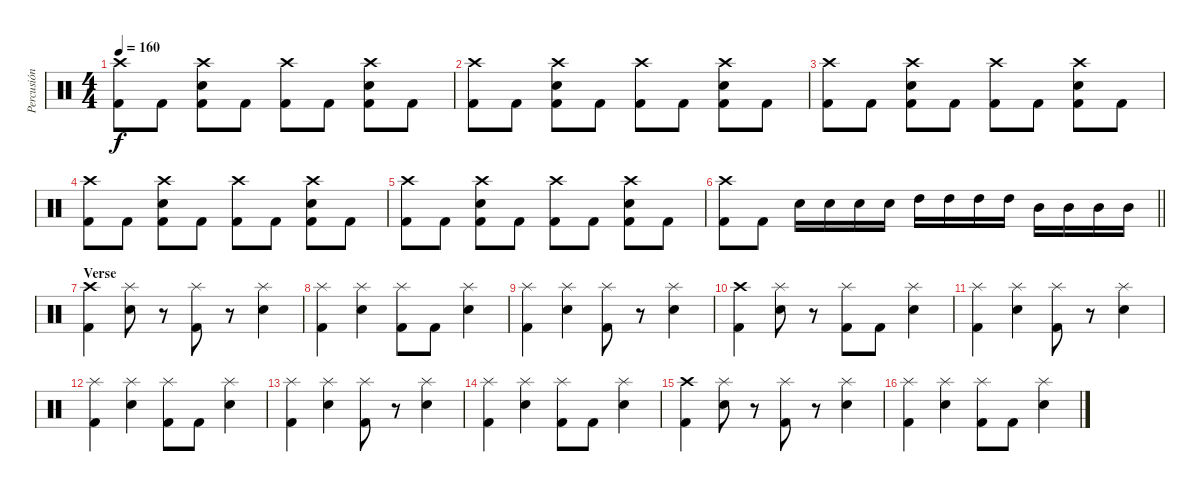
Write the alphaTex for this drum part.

\track ("Percusión" "Percusión") {instrument percussion}
\staff {score}
\articulation defaults
\ts (4 4)
\tempo 160
\clef neutral
\ks c
("Crash high (hit)" "Kick (hit) 2").8{dy f} "Kick (hit) 2".8 ("Crash high (hit)" "Electric Snare (hit)" "Kick (hit) 2").8 "Kick (hit) 2".8 ("Crash high (hit)" "Kick (hit) 2").8 "Kick (hit) 2".8 ("Crash high (hit)" "Electric Snare (hit)" "Kick (hit) 2").8 "Kick (hit) 2".8 |
("Crash high (hit)" "Kick (hit) 2").8 "Kick (hit) 2".8 ("Crash high (hit)" "Electric Snare (hit)" "Kick (hit) 2").8 "Kick (hit) 2".8 ("Crash high (hit)" "Kick (hit) 2").8 "Kick (hit) 2".8 ("Crash high (hit)" "Electric Snare (hit)" "Kick (hit) 2").8 "Kick (hit) 2".8 |
("Crash high (hit)" "Kick (hit) 2").8 "Kick (hit) 2".8 ("Crash high (hit)" "Electric Snare (hit)" "Kick (hit) 2").8 "Kick (hit) 2".8 ("Crash high (hit)" "Kick (hit) 2").8 "Kick (hit) 2".8 ("Crash high (hit)" "Electric Snare (hit)" "Kick (hit) 2").8 "Kick (hit) 2".8 |
("Crash high (hit)" "Kick (hit) 2").8 "Kick (hit) 2".8 ("Crash high (hit)" "Electric Snare (hit)" "Kick (hit) 2").8 "Kick (hit) 2".8 ("Crash high (hit)" "Kick (hit) 2").8 "Kick (hit) 2".8 ("Crash high (hit)" "Electric Snare (hit)" "Kick (hit) 2").8 "Kick (hit) 2".8 |
("Crash high (hit)" "Kick (hit) 2").8 "Kick (hit) 2".8 ("Crash high (hit)" "Electric Snare (hit)" "Kick (hit) 2").8 "Kick (hit) 2".8 ("Crash high (hit)" "Kick (hit) 2").8 "Kick (hit) 2".8 ("Crash high (hit)" "Electric Snare (hit)" "Kick (hit) 2").8 "Kick (hit) 2".8 |
\barLineRight lightlight
("Crash high (hit)" "Kick (hit) 2").8 "Kick (hit) 2".8 "Electric Snare (hit)".16 "Electric Snare (hit)".16 "Electric Snare (hit)".16 "Electric Snare (hit)".16 "High Tom (hit)".16 "High Tom (hit)".16 "High Tom (hit)".16 "High Tom (hit)".16 "Mid Tom (hit)".16 "Mid Tom (hit)".16 "Mid Tom (hit)".16 "Mid Tom (hit)".16 |
\section ("" "Verse")
("Crash high (hit)" "Kick (hit) 2").4 ("Splash (hit)" "Electric Snare (hit)").8 r.8 ("Splash (hit)" "Kick (hit) 2").8 r.8 ("Splash (hit)" "Electric Snare (hit)").4 |
("Splash (hit)" "Kick (hit) 2").4 ("Splash (hit)" "Electric Snare (hit)").4 ("Splash (hit)" "Kick (hit) 2").8 "Kick (hit) 2".8 ("Splash (hit)" "Electric Snare (hit)").4 |
("Splash (hit)" "Kick (hit) 2").4 ("Splash (hit)" "Electric Snare (hit)").4 ("Splash (hit)" "Kick (hit) 2").8 r.8 ("Splash (hit)" "Electric Snare (hit)").4 |
("Crash high (hit)" "Kick (hit) 2").4 ("Splash (hit)" "Electric Snare (hit)").8 r.8 ("Splash (hit)" "Kick (hit) 2").8 "Kick (hit) 2".8 ("Splash (hit)" "Electric Snare (hit)").4 |
("Splash (hit)" "Kick (hit) 2").4 ("Splash (hit)" "Electric Snare (hit)").4 ("Splash (hit)" "Kick (hit) 2").8 r.8 ("Splash (hit)" "Electric Snare (hit)").4 |
("Splash (hit)" "Kick (hit) 2").4 ("Splash (hit)" "Electric Snare (hit)").4 ("Splash (hit)" "Kick (hit) 2").8 "Kick (hit) 2".8 ("Splash (hit)" "Electric Snare (hit)").4 |
("Splash (hit)" "Kick (hit) 2").4 ("Splash (hit)" "Electric Snare (hit)").4 ("Splash (hit)" "Kick (hit) 2").8 r.8 ("Splash (hit)" "Electric Snare (hit)").4 |
("Splash (hit)" "Kick (hit) 2").4 ("Splash (hit)" "Electric Snare (hit)").4 ("Splash (hit)" "Kick (hit) 2").8 "Kick (hit) 2".8 ("Splash (hit)" "Electric Snare (hit)").4 |
("Crash high (hit)" "Kick (hit) 2").4 ("Splash (hit)" "Electric Snare (hit)").8 r.8 ("Splash (hit)" "Kick (hit) 2").8 r.8 ("Splash (hit)" "Electric Snare (hit)").4 |
("Splash (hit)" "Kick (hit) 2").4 ("Splash (hit)" "Electric Snare (hit)").4 ("Splash (hit)" "Kick (hit) 2").8 "Kick (hit) 2".8 ("Splash (hit)" "Electric Snare (hit)").4
